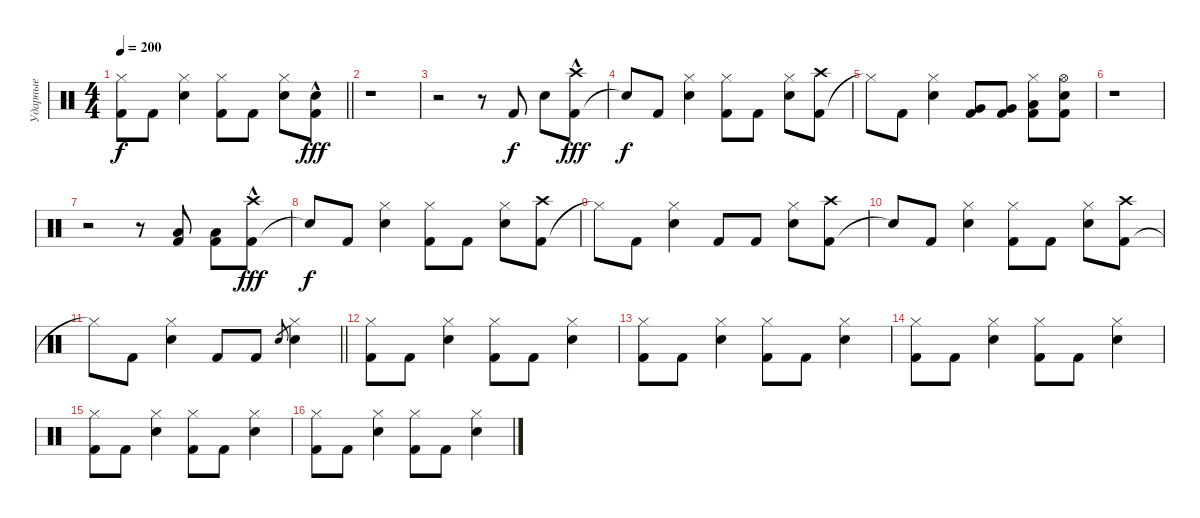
\track ("Ударные" "Ударные") {instrument percussion}
\staff {score}
\articulation defaults
\ts (4 4)
\tempo 200
\clef neutral
\barLineRight lightlight
\ks c
("Kick (hit) 2" "Hi-Hat (closed)").8{dy f} "Kick (hit) 2".8 ("Snare (hit) 2" "Hi-Hat (closed)").4 ("Kick (hit) 2" "Hi-Hat (closed)").8 "Kick (hit) 2".8 ("Snare (hit) 2" "Hi-Hat (closed)").8 ("Kick (hit) 2" "Snare (hit) 2"{hac}).8{dy fff} |
r.1 |
r.2 r.8 "Kick (hit) 2".8{dy f} "Snare (hit) 2".8 ("Kick (hit) 2" "Crash high (hit)"{hac}).8{dy fff} |
"Snare (hit)"{t}.8{dy f} "Kick (hit) 2".8 ("Snare (hit) 2" "Hi-Hat (closed)").4 ("Kick (hit) 2" "Hi-Hat (closed)").8 "Kick (hit) 2".8 ("Snare (hit) 2" "Hi-Hat (closed)").8 ("Kick (hit) 2" "Crash high (hit)").8 |
"Hi-Hat (closed)"{t}.8 "Kick (hit) 2".8 ("Snare (hit) 2" "Hi-Hat (closed)").4 ("Kick (hit) 2" "Very Low Tom (hit)").8 ("Kick (hit) 2" "Very Low Tom (hit)").8 ("Kick (hit) 2" "Low Floor Tom (hit)" "Hi-Hat (closed)").8 ("Kick (hit) 2" "Snare (hit) 2" "Hi-Hat (open)").8 |
r.1 |
r.2 r.8 ("Kick (hit) 2" "Low Floor Tom (hit)").8 ("Kick (hit) 2" "Low Floor Tom (hit)").8 ("Kick (hit) 2" "Crash high (hit)"{hac}).8{dy fff} |
"Snare (hit)"{t}.8{dy f} "Kick (hit) 2".8 ("Snare (hit) 2" "Hi-Hat (closed)").4 ("Kick (hit) 2" "Hi-Hat (closed)").8 "Kick (hit) 2".8 ("Snare (hit) 2" "Hi-Hat (closed)").8 ("Kick (hit) 2" "Crash high (hit)").8 |
"Hi-Hat (closed)"{t}.8 "Kick (hit) 2".8 ("Snare (hit) 2" "Hi-Hat (closed)").4 "Kick (hit) 2".8 "Kick (hit) 2".8 ("Snare (hit) 2" "Hi-Hat (closed)").8 ("Kick (hit) 2" "Crash high (hit)").8 |
"Snare (hit)"{t}.8 "Kick (hit) 2".8 ("Snare (hit) 2" "Hi-Hat (closed)").4 ("Kick (hit) 2" "Hi-Hat (closed)").8 "Kick (hit) 2".8 ("Snare (hit) 2" "Hi-Hat (closed)").8 ("Kick (hit) 2" "Crash high (hit)").8 |
\barLineRight lightlight "Hi-Hat (closed)"{t}.8 "Kick (hit) 2".8
("Snare (hit) 2" "Hi-Hat (closed)").4 "Kick (hit) 2".8 "Kick (hit) 2".8 "Snare (hit) 2".8{gr} ("Snare (hit) 2" "Hi-Hat (closed)").4 |
("Kick (hit) 2" "Hi-Hat (closed)").8 "Kick (hit) 2".8 ("Snare (hit) 2" "Hi-Hat (closed)").4 ("Kick (hit) 2" "Hi-Hat (closed)").8 "Kick (hit) 2".8 ("Snare (hit) 2" "Hi-Hat (closed)").4 |
("Kick (hit) 2" "Hi-Hat (closed)").8 "Kick (hit) 2".8 ("Snare (hit) 2" "Hi-Hat (closed)").4 ("Kick (hit) 2" "Hi-Hat (closed)").8 "Kick (hit) 2".8 ("Snare (hit) 2" "Hi-Hat (closed)").4 |
("Kick (hit) 2" "Hi-Hat (closed)").8 "Kick (hit) 2".8 ("Snare (hit) 2" "Hi-Hat (closed)").4 ("Kick (hit) 2" "Hi-Hat (closed)").8 "Kick (hit) 2".8 ("Snare (hit) 2" "Hi-Hat (closed)").4 |
("Kick (hit) 2" "Hi-Hat (closed)").8 "Kick (hit) 2".8 ("Snare (hit) 2" "Hi-Hat (closed)").4 ("Kick (hit) 2" "Hi-Hat (closed)").8 "Kick (hit) 2".8 ("Snare (hit) 2" "Hi-Hat (closed)").4 |
("Kick (hit) 2" "Hi-Hat (closed)").8 "Kick (hit) 2".8 ("Snare (hit) 2" "Hi-Hat (closed)").4 ("Kick (hit) 2" "Hi-Hat (closed)").8 "Kick (hit) 2".8 ("Snare (hit) 2" "Hi-Hat (closed)").4
